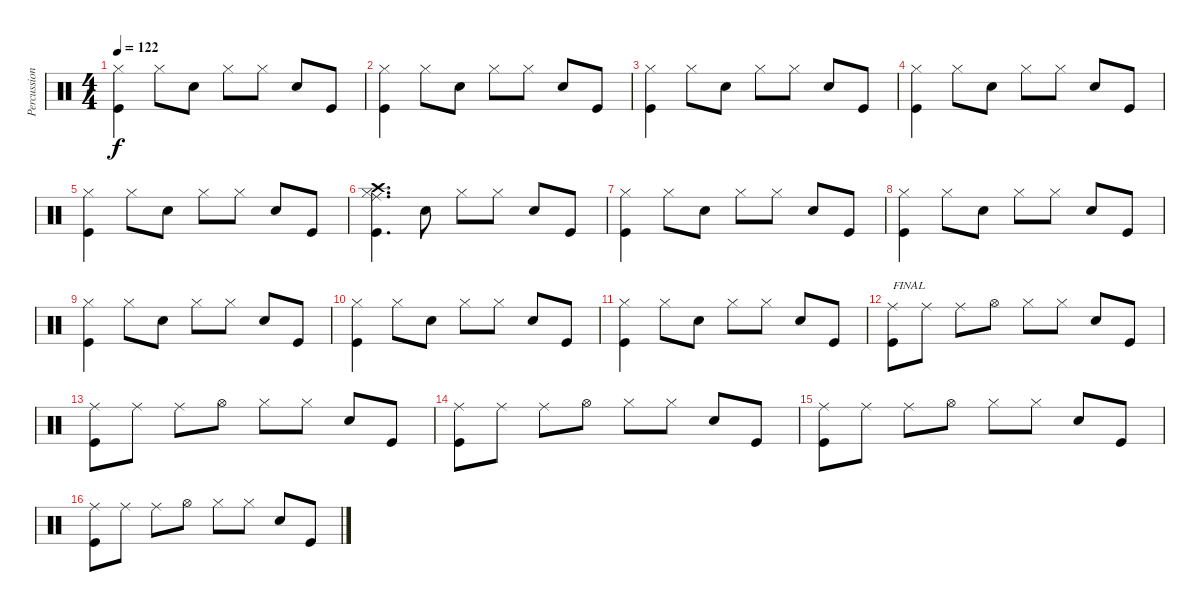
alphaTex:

\track ("Percussioni" "Percussion") {instrument percussion}
\staff {score}
\articulation defaults
\ts (4 4)
\tempo 122
\clef neutral
\ks c
("Hi-Hat (closed)" "Kick (hit)").4{dy f} "Hi-Hat (closed)".8 "Snare (hit) 2".8 "Hi-Hat (closed)".8 "Hi-Hat (closed)".8 "Snare (hit) 2".8 "Kick (hit)".8 |
("Hi-Hat (closed)" "Kick (hit)").4 "Hi-Hat (closed)".8 "Snare (hit) 2".8 "Hi-Hat (closed)".8 "Hi-Hat (closed)".8 "Snare (hit) 2".8 "Kick (hit)".8 |
("Hi-Hat (closed)" "Kick (hit)").4 "Hi-Hat (closed)".8 "Snare (hit) 2".8 "Hi-Hat (closed)".8 "Hi-Hat (closed)".8 "Snare (hit) 2".8 "Kick (hit)".8 |
("Hi-Hat (closed)" "Kick (hit)").4 "Hi-Hat (closed)".8 "Snare (hit) 2".8 "Hi-Hat (closed)".8 "Hi-Hat (closed)".8 "Snare (hit) 2".8 "Kick (hit)".8 |
("Hi-Hat (closed)" "Kick (hit)").4 "Hi-Hat (closed)".8 "Snare (hit) 2".8 "Hi-Hat (closed)".8 "Hi-Hat (closed)".8 "Snare (hit) 2".8 "Kick (hit)".8 |
("Crash high (hit)" "Ride (middle)" "Hi-Hat (closed)" "Kick (hit)").4{d} "Snare (hit) 2".8 "Hi-Hat (closed)".8 "Hi-Hat (closed)".8 "Snare (hit) 2".8 "Kick (hit)".8 |
("Hi-Hat (closed)" "Kick (hit)").4 "Hi-Hat (closed)".8 "Snare (hit) 2".8 "Hi-Hat (closed)".8 "Hi-Hat (closed)".8 "Snare (hit) 2".8 "Kick (hit)".8 |
("Hi-Hat (closed)" "Kick (hit)").4 "Hi-Hat (closed)".8 "Snare (hit) 2".8 "Hi-Hat (closed)".8 "Hi-Hat (closed)".8 "Snare (hit) 2".8 "Kick (hit)".8 |
("Hi-Hat (closed)" "Kick (hit)").4 "Hi-Hat (closed)".8 "Snare (hit) 2".8 "Hi-Hat (closed)".8 "Hi-Hat (closed)".8 "Snare (hit) 2".8 "Kick (hit)".8 |
("Hi-Hat (closed)" "Kick (hit)").4 "Hi-Hat (closed)".8 "Snare (hit) 2".8 "Hi-Hat (closed)".8 "Hi-Hat (closed)".8 "Snare (hit) 2".8 "Kick (hit)".8 |
("Hi-Hat (closed)" "Kick (hit)").4 "Hi-Hat (closed)".8 "Snare (hit) 2".8 "Hi-Hat (closed)".8 "Hi-Hat (closed)".8 "Snare (hit) 2".8 "Kick (hit)".8 |
("Ride (middle)" "Kick (hit)").8{txt "FINAL"} "Ride (middle)".8 "Ride (middle)".8 "Hi-Hat (open)".8 "Hi-Hat (closed)".8 "Hi-Hat (closed)".8 "Snare (hit) 2".8 "Kick (hit)".8 |
("Ride (middle)" "Kick (hit)").8 "Ride (middle)".8 "Ride (middle)".8 "Hi-Hat (open)".8 "Hi-Hat (closed)".8 "Hi-Hat (closed)".8 "Snare (hit) 2".8 "Kick (hit)".8 |
("Ride (middle)" "Kick (hit)").8 "Ride (middle)".8 "Ride (middle)".8 "Hi-Hat (open)".8 "Hi-Hat (closed)".8 "Hi-Hat (closed)".8 "Snare (hit) 2".8 "Kick (hit)".8 |
("Ride (middle)" "Kick (hit)").8 "Ride (middle)".8 "Ride (middle)".8 "Hi-Hat (open)".8 "Hi-Hat (closed)".8 "Hi-Hat (closed)".8 "Snare (hit) 2".8 "Kick (hit)".8 |
("Ride (middle)" "Kick (hit)").8 "Ride (middle)".8 "Ride (middle)".8 "Hi-Hat (open)".8 "Hi-Hat (closed)".8 "Hi-Hat (closed)".8 "Snare (hit) 2".8 "Kick (hit)".8
